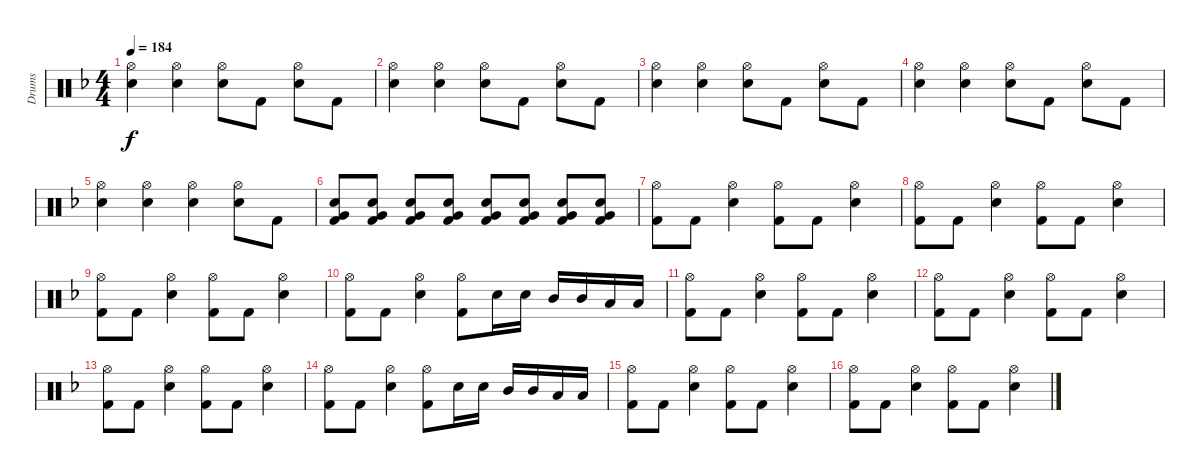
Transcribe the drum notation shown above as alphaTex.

\track ("Drums" "Drums") {instrument percussion}
\staff {score}
\articulation defaults
\ts (4 4)
\tempo 184
\clef neutral
\ks f
("Hi-Hat (open)" "Electric Snare (hit)").4{dy f} ("Hi-Hat (open)" "Electric Snare (hit)").4 ("Hi-Hat (open)" "Electric Snare (hit)").8 "Kick (hit) 2".8 ("Hi-Hat (open)" "Electric Snare (hit)").8 "Kick (hit) 2".8 |
("Hi-Hat (open)" "Electric Snare (hit)").4 ("Hi-Hat (open)" "Electric Snare (hit)").4 ("Hi-Hat (open)" "Electric Snare (hit)").8 "Kick (hit) 2".8 ("Hi-Hat (open)" "Electric Snare (hit)").8 "Kick (hit) 2".8 |
("Hi-Hat (open)" "Electric Snare (hit)").4 ("Hi-Hat (open)" "Electric Snare (hit)").4 ("Hi-Hat (open)" "Electric Snare (hit)").8 "Kick (hit) 2".8 ("Hi-Hat (open)" "Electric Snare (hit)").8 "Kick (hit) 2".8 |
("Hi-Hat (open)" "Electric Snare (hit)").4 ("Hi-Hat (open)" "Electric Snare (hit)").4 ("Hi-Hat (open)" "Electric Snare (hit)").8 "Kick (hit) 2".8 ("Hi-Hat (open)" "Electric Snare (hit)").8 "Kick (hit) 2".8 |
("Hi-Hat (open)" "Electric Snare (hit)").4 ("Hi-Hat (open)" "Electric Snare (hit)").4 ("Hi-Hat (open)" "Electric Snare (hit)").4 ("Hi-Hat (open)" "Electric Snare (hit)").8 "Kick (hit) 2".8 |
("Electric Snare (hit)" "Very Low Tom (hit)" "Kick (hit) 2").8 ("Electric Snare (hit)" "Very Low Tom (hit)" "Kick (hit) 2").8 ("Electric Snare (hit)" "Very Low Tom (hit)" "Kick (hit) 2").8 ("Electric Snare (hit)" "Very Low Tom (hit)" "Kick (hit) 2").8 ("Electric Snare (hit)" "Very Low Tom (hit)" "Kick (hit) 2").8 ("Electric Snare (hit)" "Very Low Tom (hit)" "Kick (hit) 2").8 ("Electric Snare (hit)" "Very Low Tom (hit)" "Kick (hit) 2").8 ("Electric Snare (hit)" "Very Low Tom (hit)" "Kick (hit) 2").8 |
("Hi-Hat (open)" "Kick (hit) 2").8 "Kick (hit) 2".8 ("Hi-Hat (open)" "Electric Snare (hit)").4 ("Hi-Hat (open)" "Kick (hit) 2").8 "Kick (hit) 2".8 ("Hi-Hat (open)" "Electric Snare (hit)").4 |
("Hi-Hat (open)" "Kick (hit) 2").8 "Kick (hit) 2".8 ("Hi-Hat (open)" "Electric Snare (hit)").4 ("Hi-Hat (open)" "Kick (hit) 2").8 "Kick (hit) 2".8 ("Hi-Hat (open)" "Electric Snare (hit)").4 |
("Hi-Hat (open)" "Kick (hit) 2").8 "Kick (hit) 2".8 ("Hi-Hat (open)" "Electric Snare (hit)").4 ("Hi-Hat (open)" "Kick (hit) 2").8 "Kick (hit) 2".8 ("Hi-Hat (open)" "Electric Snare (hit)").4 |
("Hi-Hat (open)" "Kick (hit) 2").8 "Kick (hit) 2".8 ("Hi-Hat (open)" "Electric Snare (hit)").4 ("Hi-Hat (open)" "Kick (hit) 2").8 "Electric Snare (hit)".16 "Electric Snare (hit)".16 "Mid Tom (hit)".16 "Mid Tom (hit)".16 "Low Tom (hit)".16 "Low Tom (hit)".16 |
("Hi-Hat (open)" "Kick (hit) 2").8 "Kick (hit) 2".8 ("Hi-Hat (open)" "Electric Snare (hit)").4 ("Hi-Hat (open)" "Kick (hit) 2").8 "Kick (hit) 2".8 ("Hi-Hat (open)" "Electric Snare (hit)").4 |
("Hi-Hat (open)" "Kick (hit) 2").8 "Kick (hit) 2".8 ("Hi-Hat (open)" "Electric Snare (hit)").4 ("Hi-Hat (open)" "Kick (hit) 2").8 "Kick (hit) 2".8 ("Hi-Hat (open)" "Electric Snare (hit)").4 |
("Hi-Hat (open)" "Kick (hit) 2").8 "Kick (hit) 2".8 ("Hi-Hat (open)" "Electric Snare (hit)").4 ("Hi-Hat (open)" "Kick (hit) 2").8 "Kick (hit) 2".8 ("Hi-Hat (open)" "Electric Snare (hit)").4 |
("Hi-Hat (open)" "Kick (hit) 2").8 "Kick (hit) 2".8 ("Hi-Hat (open)" "Electric Snare (hit)").4 ("Hi-Hat (open)" "Kick (hit) 2").8 "Electric Snare (hit)".16 "Electric Snare (hit)".16 "Mid Tom (hit)".16 "Mid Tom (hit)".16 "Low Tom (hit)".16 "Low Tom (hit)".16 |
("Hi-Hat (open)" "Kick (hit) 2").8 "Kick (hit) 2".8 ("Hi-Hat (open)" "Electric Snare (hit)").4 ("Hi-Hat (open)" "Kick (hit) 2").8 "Kick (hit) 2".8 ("Hi-Hat (open)" "Electric Snare (hit)").4 |
("Hi-Hat (open)" "Kick (hit) 2").8 "Kick (hit) 2".8 ("Hi-Hat (open)" "Electric Snare (hit)").4 ("Hi-Hat (open)" "Kick (hit) 2").8 "Kick (hit) 2".8 ("Hi-Hat (open)" "Electric Snare (hit)").4
